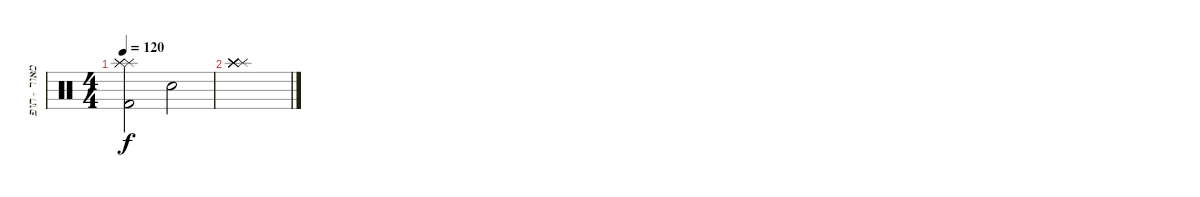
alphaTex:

\track ("מאור - תופים" "מאור - תופ") {instrument percussion}
\staff {score}
\articulation defaults
\ts (4 4)
\tempo 120
\clef neutral
\ks c
("Kick (hit) 2" "Splash (hit)" "Splash (hit)" "Splash (hit)").2{dy f} "Electric Snare (hit)".2 |
("Splash (hit)" "Splash (hit)" "Splash (hit)" "Splash (hit)" "Splash (hit)" "Splash (hit)").1
